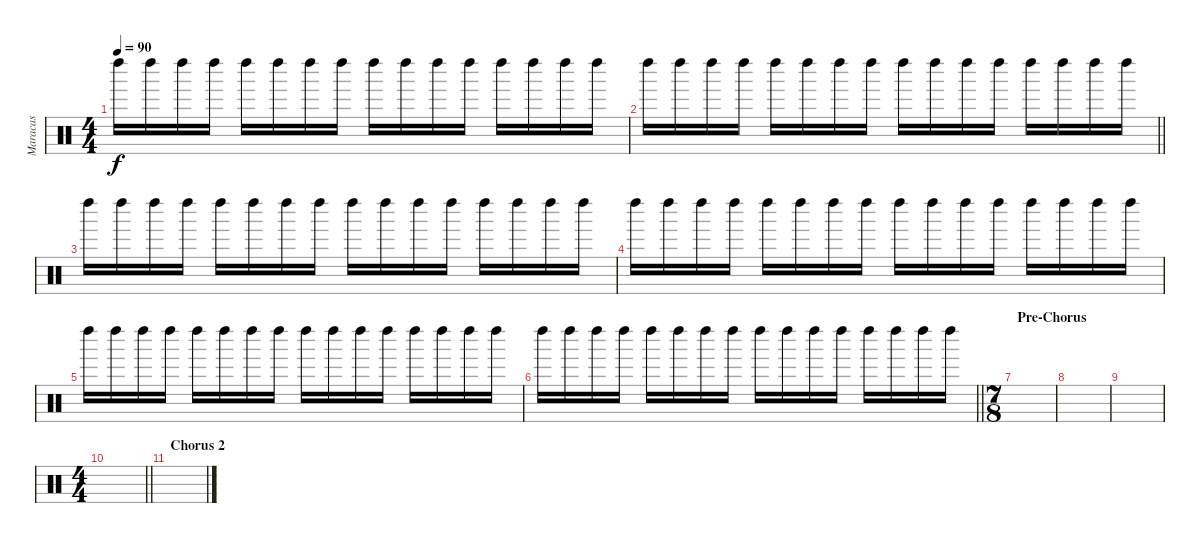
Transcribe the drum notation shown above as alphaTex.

\track ("Maracas" "Maracas") {instrument percussion}
\staff {score}
\articulation defaults
\ts (4 4)
\tempo 90
\clef neutral
\ks c "Left Maraca (hit)".16{dy f} "Left Maraca (hit)".16 "Left Maraca (hit)".16 "Left Maraca (hit)".16 "Left Maraca (hit)".16 "Left Maraca (hit)".16 "Left Maraca (hit)".16 "Left Maraca (hit)".16 "Left Maraca (hit)".16 "Left Maraca (hit)".16 "Left Maraca (hit)".16 "Left Maraca (hit)".16 "Left Maraca (hit)".16 "Left Maraca (hit)".16 "Left Maraca (hit)".16 "Left Maraca (hit)".16
|
\barLineRight lightlight "Left Maraca (hit)".16 "Left Maraca (hit)".16 "Left Maraca (hit)".16 "Left Maraca (hit)".16 "Left Maraca (hit)".16 "Left Maraca (hit)".16 "Left Maraca (hit)".16 "Left Maraca (hit)".16 "Left Maraca (hit)".16 "Left Maraca (hit)".16 "Left Maraca (hit)".16 "Left Maraca (hit)".16 "Left Maraca (hit)".16 "Left Maraca (hit)".16 "Left Maraca (hit)".16 "Left Maraca (hit)".16
|
"Left Maraca (hit)".16 "Left Maraca (hit)".16 "Left Maraca (hit)".16 "Left Maraca (hit)".16 "Left Maraca (hit)".16 "Left Maraca (hit)".16 "Left Maraca (hit)".16 "Left Maraca (hit)".16 "Left Maraca (hit)".16 "Left Maraca (hit)".16 "Left Maraca (hit)".16 "Left Maraca (hit)".16 "Left Maraca (hit)".16 "Left Maraca (hit)".16 "Left Maraca (hit)".16 "Left Maraca (hit)".16 |
"Left Maraca (hit)".16 "Left Maraca (hit)".16 "Left Maraca (hit)".16 "Left Maraca (hit)".16 "Left Maraca (hit)".16 "Left Maraca (hit)".16 "Left Maraca (hit)".16 "Left Maraca (hit)".16 "Left Maraca (hit)".16 "Left Maraca (hit)".16 "Left Maraca (hit)".16 "Left Maraca (hit)".16 "Left Maraca (hit)".16 "Left Maraca (hit)".16 "Left Maraca (hit)".16 "Left Maraca (hit)".16 |
"Left Maraca (hit)".16 "Left Maraca (hit)".16 "Left Maraca (hit)".16 "Left Maraca (hit)".16 "Left Maraca (hit)".16 "Left Maraca (hit)".16 "Left Maraca (hit)".16 "Left Maraca (hit)".16 "Left Maraca (hit)".16 "Left Maraca (hit)".16 "Left Maraca (hit)".16 "Left Maraca (hit)".16 "Left Maraca (hit)".16 "Left Maraca (hit)".16 "Left Maraca (hit)".16 "Left Maraca (hit)".16 |
\barLineRight lightlight "Left Maraca (hit)".16 "Left Maraca (hit)".16 "Left Maraca (hit)".16 "Left Maraca (hit)".16 "Left Maraca (hit)".16 "Left Maraca (hit)".16 "Left Maraca (hit)".16 "Left Maraca (hit)".16 "Left Maraca (hit)".16 "Left Maraca (hit)".16 "Left Maraca (hit)".16 "Left Maraca (hit)".16 "Left Maraca (hit)".16 "Left Maraca (hit)".16 "Left Maraca (hit)".16 "Left Maraca (hit)".16
|
\ts (7 8)
\section ("" "Pre-Chorus")
|
|
|
\ts (4 4)
\barLineRight lightlight
|
\section ("" "Chorus 2")
